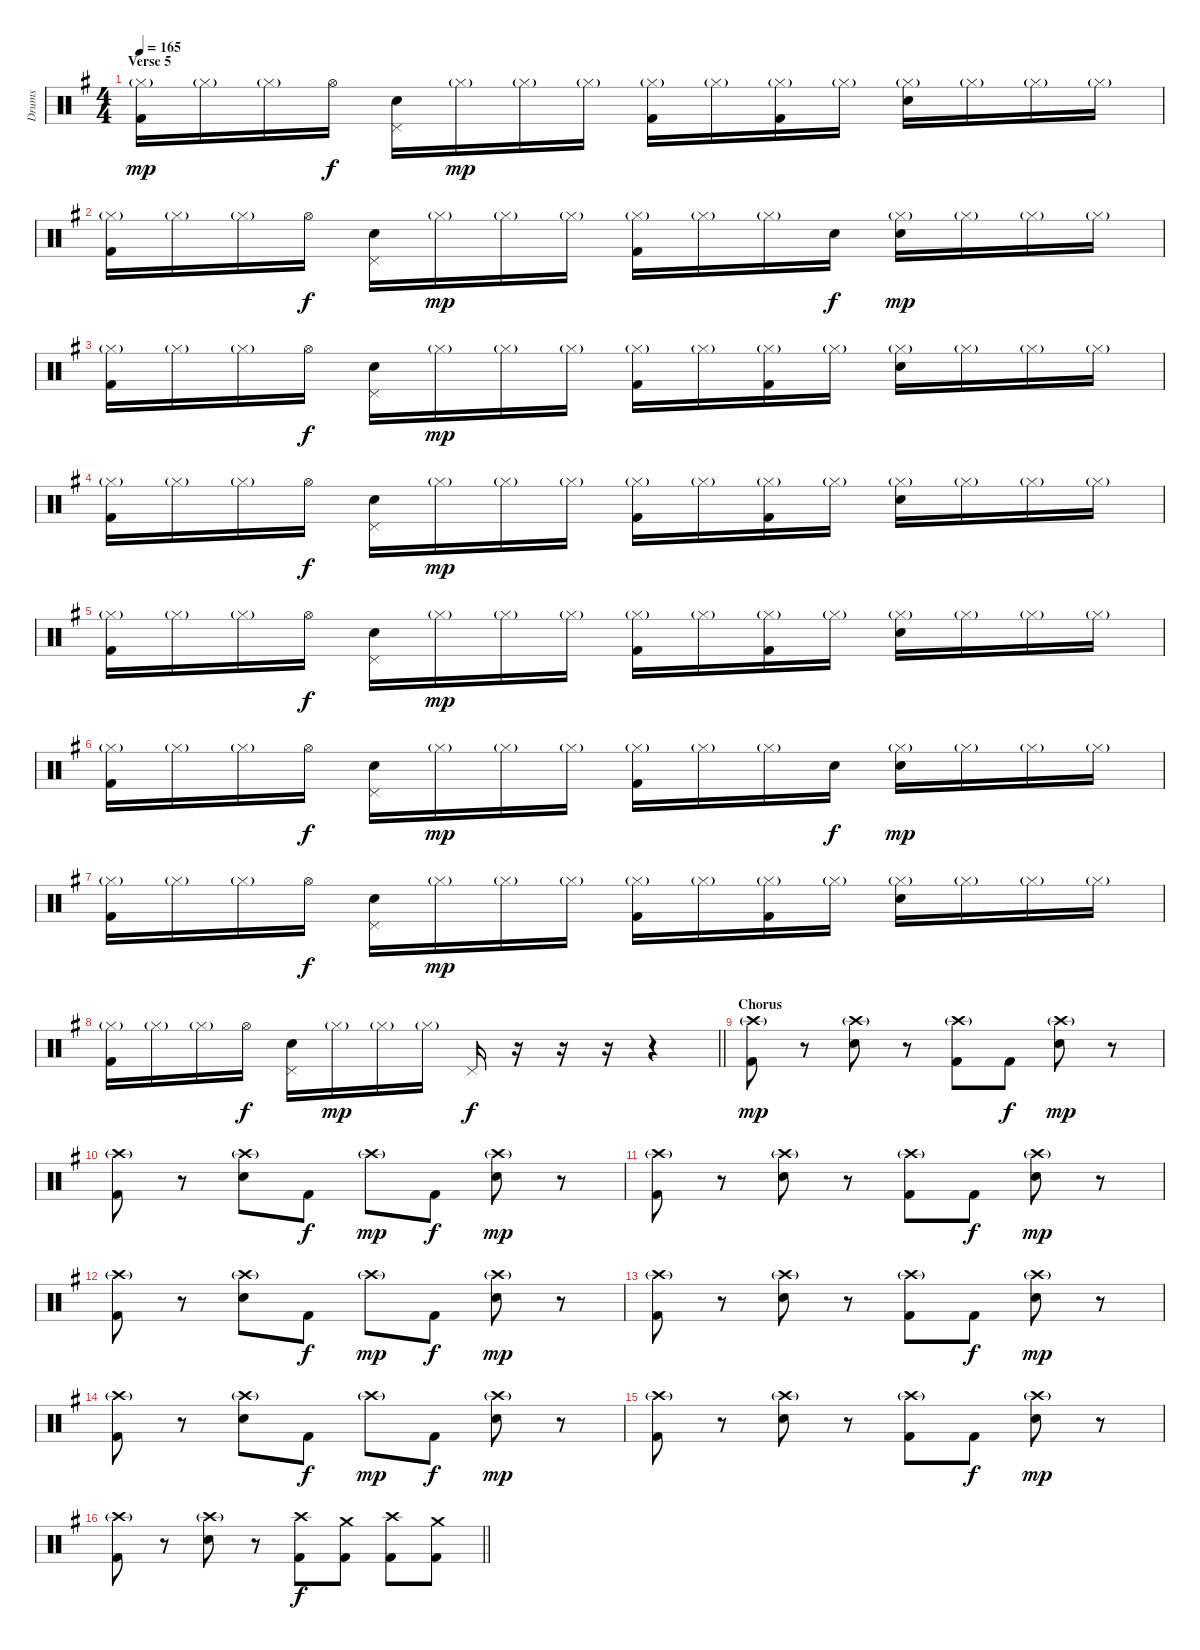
\track ("Drums" "Drums") {instrument percussion}
\staff {score}
\articulation defaults
\ts (4 4)
\section ("" "Verse 5")
\tempo 165
\clef neutral
\ks eminor
("Hi-Hat (closed)"{g} "Kick (hit) 2").16{dy mp} "Hi-Hat (closed)"{g}.16 "Hi-Hat (closed)"{g}.16 "Hi-Hat (open)".16{dy f} ("Pedal Hi-Hat (hit)" "Electric Snare (hit)").16 "Hi-Hat (closed)"{g}.16{dy mp} "Hi-Hat (closed)"{g}.16 "Hi-Hat (closed)"{g}.16 ("Hi-Hat (closed)"{g} "Kick (hit) 2").16 "Hi-Hat (closed)"{g}.16 ("Hi-Hat (closed)"{g} "Kick (hit) 2").16 "Hi-Hat (closed)"{g}.16 ("Hi-Hat (closed)"{g} "Electric Snare (hit)").16 "Hi-Hat (closed)"{g}.16 "Hi-Hat (closed)"{g}.16 "Hi-Hat (closed)"{g}.16 |
("Hi-Hat (closed)"{g} "Kick (hit) 2").16 "Hi-Hat (closed)"{g}.16 "Hi-Hat (closed)"{g}.16 "Hi-Hat (open)".16{dy f} ("Pedal Hi-Hat (hit)" "Electric Snare (hit)").16 "Hi-Hat (closed)"{g}.16{dy mp} "Hi-Hat (closed)"{g}.16 "Hi-Hat (closed)"{g}.16 ("Hi-Hat (closed)"{g} "Kick (hit) 2").16 "Hi-Hat (closed)"{g}.16 "Hi-Hat (closed)"{g}.16 "Electric Snare (hit)".16{dy f} ("Hi-Hat (closed)"{g} "Electric Snare (hit)").16{dy mp} "Hi-Hat (closed)"{g}.16 "Hi-Hat (closed)"{g}.16 "Hi-Hat (closed)"{g}.16 |
("Hi-Hat (closed)"{g} "Kick (hit) 2").16 "Hi-Hat (closed)"{g}.16 "Hi-Hat (closed)"{g}.16 "Hi-Hat (open)".16{dy f} ("Pedal Hi-Hat (hit)" "Electric Snare (hit)").16 "Hi-Hat (closed)"{g}.16{dy mp} "Hi-Hat (closed)"{g}.16 "Hi-Hat (closed)"{g}.16 ("Hi-Hat (closed)"{g} "Kick (hit) 2").16 "Hi-Hat (closed)"{g}.16 ("Hi-Hat (closed)"{g} "Kick (hit) 2").16 "Hi-Hat (closed)"{g}.16 ("Hi-Hat (closed)"{g} "Electric Snare (hit)").16 "Hi-Hat (closed)"{g}.16 "Hi-Hat (closed)"{g}.16 "Hi-Hat (closed)"{g}.16 |
("Hi-Hat (closed)"{g} "Kick (hit) 2").16 "Hi-Hat (closed)"{g}.16 "Hi-Hat (closed)"{g}.16 "Hi-Hat (open)".16{dy f} ("Pedal Hi-Hat (hit)" "Electric Snare (hit)").16 "Hi-Hat (closed)"{g}.16{dy mp} "Hi-Hat (closed)"{g}.16 "Hi-Hat (closed)"{g}.16 ("Hi-Hat (closed)"{g} "Kick (hit) 2").16 "Hi-Hat (closed)"{g}.16 ("Hi-Hat (closed)"{g} "Kick (hit) 2").16 "Hi-Hat (closed)"{g}.16 ("Hi-Hat (closed)"{g} "Electric Snare (hit)").16 "Hi-Hat (closed)"{g}.16 "Hi-Hat (closed)"{g}.16 "Hi-Hat (closed)"{g}.16 |
("Hi-Hat (closed)"{g} "Kick (hit) 2").16 "Hi-Hat (closed)"{g}.16 "Hi-Hat (closed)"{g}.16 "Hi-Hat (open)".16{dy f} ("Pedal Hi-Hat (hit)" "Electric Snare (hit)").16 "Hi-Hat (closed)"{g}.16{dy mp} "Hi-Hat (closed)"{g}.16 "Hi-Hat (closed)"{g}.16 ("Hi-Hat (closed)"{g} "Kick (hit) 2").16 "Hi-Hat (closed)"{g}.16 ("Hi-Hat (closed)"{g} "Kick (hit) 2").16 "Hi-Hat (closed)"{g}.16 ("Hi-Hat (closed)"{g} "Electric Snare (hit)").16 "Hi-Hat (closed)"{g}.16 "Hi-Hat (closed)"{g}.16 "Hi-Hat (closed)"{g}.16 |
("Hi-Hat (closed)"{g} "Kick (hit) 2").16 "Hi-Hat (closed)"{g}.16 "Hi-Hat (closed)"{g}.16 "Hi-Hat (open)".16{dy f} ("Pedal Hi-Hat (hit)" "Electric Snare (hit)").16 "Hi-Hat (closed)"{g}.16{dy mp} "Hi-Hat (closed)"{g}.16 "Hi-Hat (closed)"{g}.16 ("Hi-Hat (closed)"{g} "Kick (hit) 2").16 "Hi-Hat (closed)"{g}.16 "Hi-Hat (closed)"{g}.16 "Electric Snare (hit)".16{dy f} ("Hi-Hat (closed)"{g} "Electric Snare (hit)").16{dy mp} "Hi-Hat (closed)"{g}.16 "Hi-Hat (closed)"{g}.16 "Hi-Hat (closed)"{g}.16 |
("Hi-Hat (closed)"{g} "Kick (hit) 2").16 "Hi-Hat (closed)"{g}.16 "Hi-Hat (closed)"{g}.16 "Hi-Hat (open)".16{dy f} ("Pedal Hi-Hat (hit)" "Electric Snare (hit)").16 "Hi-Hat (closed)"{g}.16{dy mp} "Hi-Hat (closed)"{g}.16 "Hi-Hat (closed)"{g}.16 ("Hi-Hat (closed)"{g} "Kick (hit) 2").16 "Hi-Hat (closed)"{g}.16 ("Hi-Hat (closed)"{g} "Kick (hit) 2").16 "Hi-Hat (closed)"{g}.16 ("Hi-Hat (closed)"{g} "Electric Snare (hit)").16 "Hi-Hat (closed)"{g}.16 "Hi-Hat (closed)"{g}.16 "Hi-Hat (closed)"{g}.16 |
\barLineRight lightlight
("Hi-Hat (closed)"{g} "Kick (hit) 2").16 "Hi-Hat (closed)"{g}.16 "Hi-Hat (closed)"{g}.16 "Hi-Hat (open)".16{dy f} ("Pedal Hi-Hat (hit)" "Electric Snare (hit)").16 "Hi-Hat (closed)"{g}.16{dy mp} "Hi-Hat (closed)"{g}.16 "Hi-Hat (closed)"{g}.16 "Pedal Hi-Hat (hit)".16{dy f} r.16 r.16 r.16 r.4 |
\section ("" "Chorus")
("Crash high (hit)"{g} "Kick (hit) 2").8{dy mp} r.8 ("Crash high (hit)"{g} "Electric Snare (hit)").8 r.8 ("Crash high (hit)"{g} "Kick (hit) 2").8 "Kick (hit) 2".8{dy f} ("Crash high (hit)"{g} "Electric Snare (hit)").8{dy mp} r.8 |
("Crash high (hit)"{g} "Kick (hit) 2").8 r.8 ("Crash high (hit)"{g} "Electric Snare (hit)").8 "Kick (hit) 2".8{dy f} "Crash high (hit)"{g}.8{dy mp} "Kick (hit) 2".8{dy f} ("Crash high (hit)"{g} "Electric Snare (hit)").8{dy mp} r.8 |
("Crash high (hit)"{g} "Kick (hit) 2").8 r.8 ("Crash high (hit)"{g} "Electric Snare (hit)").8 r.8 ("Crash high (hit)"{g} "Kick (hit) 2").8 "Kick (hit) 2".8{dy f} ("Crash high (hit)"{g} "Electric Snare (hit)").8{dy mp} r.8 |
("Crash high (hit)"{g} "Kick (hit) 2").8 r.8 ("Crash high (hit)"{g} "Electric Snare (hit)").8 "Kick (hit) 2".8{dy f} "Crash high (hit)"{g}.8{dy mp} "Kick (hit) 2".8{dy f} ("Crash high (hit)"{g} "Electric Snare (hit)").8{dy mp} r.8 |
("Crash high (hit)"{g} "Kick (hit) 2").8 r.8 ("Crash high (hit)"{g} "Electric Snare (hit)").8 r.8 ("Crash high (hit)"{g} "Kick (hit) 2").8 "Kick (hit) 2".8{dy f} ("Crash high (hit)"{g} "Electric Snare (hit)").8{dy mp} r.8 |
("Crash high (hit)"{g} "Kick (hit) 2").8 r.8 ("Crash high (hit)"{g} "Electric Snare (hit)").8 "Kick (hit) 2".8{dy f} "Crash high (hit)"{g}.8{dy mp} "Kick (hit) 2".8{dy f} ("Crash high (hit)"{g} "Electric Snare (hit)").8{dy mp} r.8 |
("Crash high (hit)"{g} "Kick (hit) 2").8 r.8 ("Crash high (hit)"{g} "Electric Snare (hit)").8 r.8 ("Crash high (hit)"{g} "Kick (hit) 2").8 "Kick (hit) 2".8{dy f} ("Crash high (hit)"{g} "Electric Snare (hit)").8{dy mp} r.8 |
\barLineRight lightlight
("Crash high (hit)"{g} "Kick (hit) 2").8 r.8 ("Crash high (hit)"{g} "Electric Snare (hit)").8 r.8 ("Crash high (hit)" "Kick (hit) 2").8{dy f} ("Crash medium (hit)" "Kick (hit) 2").8 ("Crash high (hit)" "Kick (hit) 2").8 ("Crash medium (hit)" "Kick (hit) 2").8
